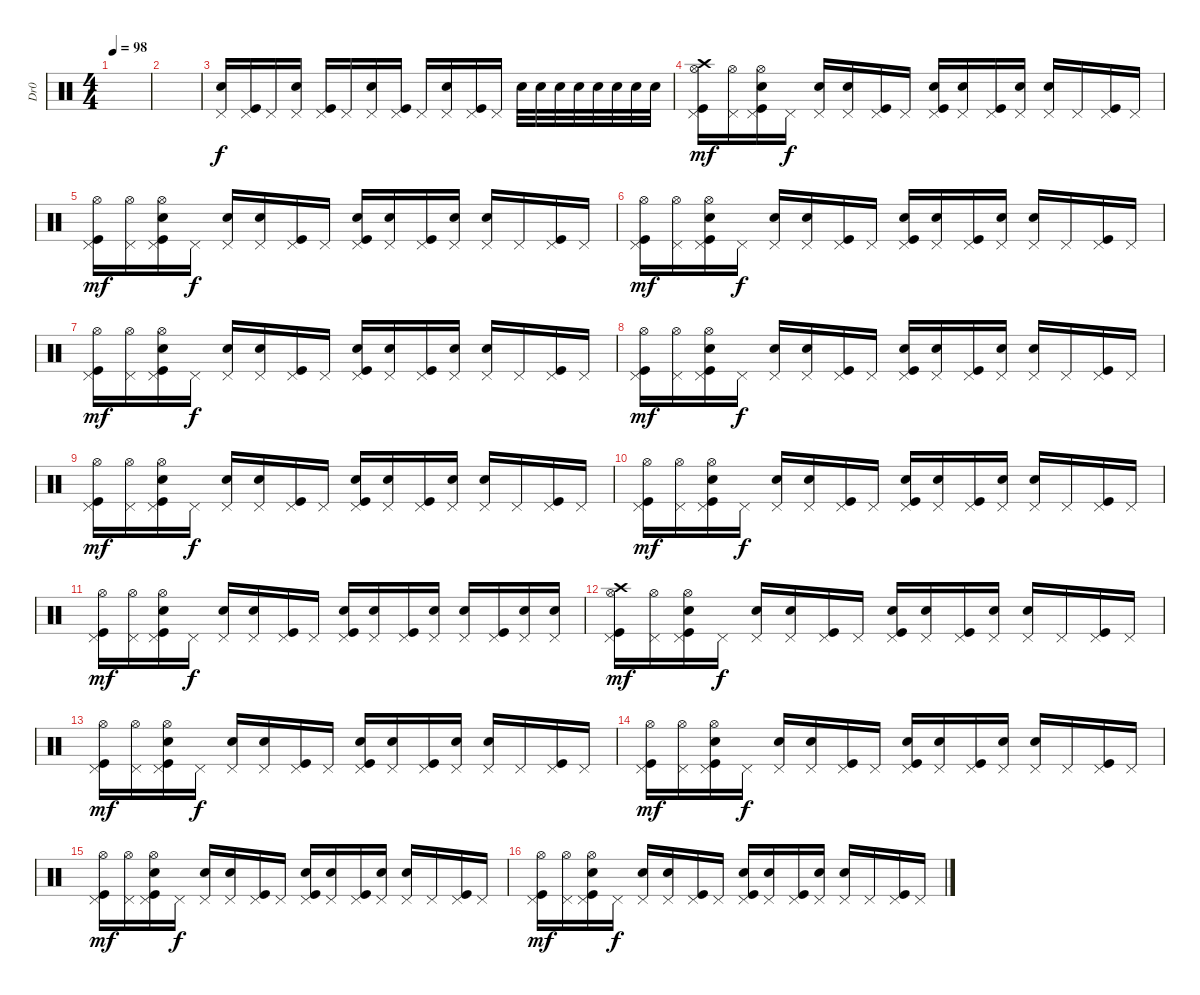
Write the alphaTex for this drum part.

\track ("Dr0" "Dr0") {instrument percussion}
\staff {score}
\articulation defaults
\ts (4 4)
\tempo 98
\clef neutral
\ks c
|
|
("Pedal Hi-Hat (hit)" "Snare (hit) 2").16 ("Kick (hit)" "Pedal Hi-Hat (hit)").16 "Pedal Hi-Hat (hit)".16 ("Pedal Hi-Hat (hit)" "Snare (hit) 2").16 ("Kick (hit)" "Pedal Hi-Hat (hit)").16 "Pedal Hi-Hat (hit)".16 ("Pedal Hi-Hat (hit)" "Snare (hit) 2").16 ("Kick (hit)" "Pedal Hi-Hat (hit)").16 "Pedal Hi-Hat (hit)".16 ("Pedal Hi-Hat (hit)" "Snare (hit) 2").16 ("Kick (hit)" "Pedal Hi-Hat (hit)").16 "Pedal Hi-Hat (hit)".16 "Snare (hit) 2".32 "Snare (hit) 2".32 "Snare (hit) 2".32 "Snare (hit) 2".32 "Snare (hit) 2".32 "Snare (hit) 2".32 "Snare (hit) 2".32 "Snare (hit) 2".32 |
("Kick (hit)" "Pedal Hi-Hat (hit)" "Crash high (hit)" "Hi-Hat (open)").16{dy mf} ("Pedal Hi-Hat (hit)" "Hi-Hat (open)").16 ("Kick (hit)" "Pedal Hi-Hat (hit)" "Hand Clap (hit)" "Hi-Hat (open)").16 "Pedal Hi-Hat (hit)".16{dy f} ("Pedal Hi-Hat (hit)" "Snare (hit) 2").16 ("Pedal Hi-Hat (hit)" "Hand Clap (hit)").16 ("Kick (hit)" "Pedal Hi-Hat (hit)").16 "Pedal Hi-Hat (hit)".16 ("Kick (hit)" "Pedal Hi-Hat (hit)" "Hand Clap (hit)").16 ("Pedal Hi-Hat (hit)" "Snare (hit) 2").16 ("Kick (hit)" "Pedal Hi-Hat (hit)").16 ("Pedal Hi-Hat (hit)" "Hand Clap (hit)").16 ("Pedal Hi-Hat (hit)" "Snare (hit) 2").16 "Pedal Hi-Hat (hit)".16 ("Kick (hit)" "Pedal Hi-Hat (hit)").16 "Pedal Hi-Hat (hit)".16 |
("Kick (hit)" "Pedal Hi-Hat (hit)" "Hi-Hat (open)").16{dy mf} ("Pedal Hi-Hat (hit)" "Hi-Hat (open)").16 ("Kick (hit)" "Pedal Hi-Hat (hit)" "Hand Clap (hit)" "Hi-Hat (open)").16 "Pedal Hi-Hat (hit)".16{dy f} ("Pedal Hi-Hat (hit)" "Snare (hit) 2").16 ("Pedal Hi-Hat (hit)" "Hand Clap (hit)").16 ("Kick (hit)" "Pedal Hi-Hat (hit)").16 "Pedal Hi-Hat (hit)".16 ("Kick (hit)" "Pedal Hi-Hat (hit)" "Hand Clap (hit)").16 ("Pedal Hi-Hat (hit)" "Snare (hit) 2").16 ("Kick (hit)" "Pedal Hi-Hat (hit)").16 ("Pedal Hi-Hat (hit)" "Hand Clap (hit)").16 ("Pedal Hi-Hat (hit)" "Snare (hit) 2").16 "Pedal Hi-Hat (hit)".16 ("Kick (hit)" "Pedal Hi-Hat (hit)").16 "Pedal Hi-Hat (hit)".16 |
("Kick (hit)" "Pedal Hi-Hat (hit)" "Hi-Hat (open)").16{dy mf} ("Pedal Hi-Hat (hit)" "Hi-Hat (open)").16 ("Kick (hit)" "Pedal Hi-Hat (hit)" "Hand Clap (hit)" "Hi-Hat (open)").16 "Pedal Hi-Hat (hit)".16{dy f} ("Pedal Hi-Hat (hit)" "Snare (hit) 2").16 ("Pedal Hi-Hat (hit)" "Hand Clap (hit)").16 ("Kick (hit)" "Pedal Hi-Hat (hit)").16 "Pedal Hi-Hat (hit)".16 ("Kick (hit)" "Pedal Hi-Hat (hit)" "Hand Clap (hit)").16 ("Pedal Hi-Hat (hit)" "Snare (hit) 2").16 ("Kick (hit)" "Pedal Hi-Hat (hit)").16 ("Pedal Hi-Hat (hit)" "Hand Clap (hit)").16 ("Pedal Hi-Hat (hit)" "Snare (hit) 2").16 "Pedal Hi-Hat (hit)".16 ("Kick (hit)" "Pedal Hi-Hat (hit)").16 "Pedal Hi-Hat (hit)".16 |
("Kick (hit)" "Pedal Hi-Hat (hit)" "Hi-Hat (open)").16{dy mf} ("Pedal Hi-Hat (hit)" "Hi-Hat (open)").16 ("Kick (hit)" "Pedal Hi-Hat (hit)" "Hand Clap (hit)" "Hi-Hat (open)").16 "Pedal Hi-Hat (hit)".16{dy f} ("Pedal Hi-Hat (hit)" "Snare (hit) 2").16 ("Pedal Hi-Hat (hit)" "Hand Clap (hit)").16 ("Kick (hit)" "Pedal Hi-Hat (hit)").16 "Pedal Hi-Hat (hit)".16 ("Kick (hit)" "Pedal Hi-Hat (hit)" "Hand Clap (hit)").16 ("Pedal Hi-Hat (hit)" "Snare (hit) 2").16 ("Kick (hit)" "Pedal Hi-Hat (hit)").16 ("Pedal Hi-Hat (hit)" "Hand Clap (hit)").16 ("Pedal Hi-Hat (hit)" "Snare (hit) 2").16 "Pedal Hi-Hat (hit)".16 ("Kick (hit)" "Pedal Hi-Hat (hit)").16 "Pedal Hi-Hat (hit)".16 |
("Kick (hit)" "Pedal Hi-Hat (hit)" "Hi-Hat (open)").16{dy mf} ("Pedal Hi-Hat (hit)" "Hi-Hat (open)").16 ("Kick (hit)" "Pedal Hi-Hat (hit)" "Hand Clap (hit)" "Hi-Hat (open)").16 "Pedal Hi-Hat (hit)".16{dy f} ("Pedal Hi-Hat (hit)" "Snare (hit) 2").16 ("Pedal Hi-Hat (hit)" "Hand Clap (hit)").16 ("Kick (hit)" "Pedal Hi-Hat (hit)").16 "Pedal Hi-Hat (hit)".16 ("Kick (hit)" "Pedal Hi-Hat (hit)" "Hand Clap (hit)").16 ("Pedal Hi-Hat (hit)" "Snare (hit) 2").16 ("Kick (hit)" "Pedal Hi-Hat (hit)").16 ("Pedal Hi-Hat (hit)" "Hand Clap (hit)").16 ("Pedal Hi-Hat (hit)" "Snare (hit) 2").16 "Pedal Hi-Hat (hit)".16 ("Kick (hit)" "Pedal Hi-Hat (hit)").16 "Pedal Hi-Hat (hit)".16 |
("Kick (hit)" "Pedal Hi-Hat (hit)" "Hi-Hat (open)").16{dy mf} ("Pedal Hi-Hat (hit)" "Hi-Hat (open)").16 ("Kick (hit)" "Pedal Hi-Hat (hit)" "Hand Clap (hit)" "Hi-Hat (open)").16 "Pedal Hi-Hat (hit)".16{dy f} ("Pedal Hi-Hat (hit)" "Snare (hit) 2").16 ("Pedal Hi-Hat (hit)" "Hand Clap (hit)").16 ("Kick (hit)" "Pedal Hi-Hat (hit)").16 "Pedal Hi-Hat (hit)".16 ("Kick (hit)" "Pedal Hi-Hat (hit)" "Hand Clap (hit)").16 ("Pedal Hi-Hat (hit)" "Snare (hit) 2").16 ("Kick (hit)" "Pedal Hi-Hat (hit)").16 ("Pedal Hi-Hat (hit)" "Hand Clap (hit)").16 ("Pedal Hi-Hat (hit)" "Snare (hit) 2").16 "Pedal Hi-Hat (hit)".16 ("Kick (hit)" "Pedal Hi-Hat (hit)").16 "Pedal Hi-Hat (hit)".16 |
("Kick (hit)" "Pedal Hi-Hat (hit)" "Hi-Hat (open)").16{dy mf} ("Pedal Hi-Hat (hit)" "Hi-Hat (open)").16 ("Kick (hit)" "Pedal Hi-Hat (hit)" "Hand Clap (hit)" "Hi-Hat (open)").16 "Pedal Hi-Hat (hit)".16{dy f} ("Pedal Hi-Hat (hit)" "Snare (hit) 2").16 ("Pedal Hi-Hat (hit)" "Hand Clap (hit)").16 ("Kick (hit)" "Pedal Hi-Hat (hit)").16 "Pedal Hi-Hat (hit)".16 ("Kick (hit)" "Pedal Hi-Hat (hit)" "Hand Clap (hit)").16 ("Pedal Hi-Hat (hit)" "Snare (hit) 2").16 ("Kick (hit)" "Pedal Hi-Hat (hit)").16 ("Pedal Hi-Hat (hit)" "Hand Clap (hit)").16 ("Pedal Hi-Hat (hit)" "Snare (hit) 2").16 "Pedal Hi-Hat (hit)".16 ("Kick (hit)" "Pedal Hi-Hat (hit)").16 "Pedal Hi-Hat (hit)".16 |
("Kick (hit)" "Pedal Hi-Hat (hit)" "Hi-Hat (open)").16{dy mf} ("Pedal Hi-Hat (hit)" "Hi-Hat (open)").16 ("Kick (hit)" "Pedal Hi-Hat (hit)" "Hand Clap (hit)" "Hi-Hat (open)").16 "Pedal Hi-Hat (hit)".16{dy f} ("Pedal Hi-Hat (hit)" "Snare (hit) 2").16 ("Pedal Hi-Hat (hit)" "Hand Clap (hit)").16 ("Kick (hit)" "Pedal Hi-Hat (hit)").16 "Pedal Hi-Hat (hit)".16 ("Kick (hit)" "Pedal Hi-Hat (hit)" "Hand Clap (hit)").16 ("Pedal Hi-Hat (hit)" "Snare (hit) 2").16 ("Kick (hit)" "Pedal Hi-Hat (hit)").16 ("Pedal Hi-Hat (hit)" "Hand Clap (hit)").16 ("Pedal Hi-Hat (hit)" "Snare (hit) 2").16 ("Kick (hit)" "Pedal Hi-Hat (hit)").16 ("Pedal Hi-Hat (hit)" "Snare (hit) 2").16 ("Pedal Hi-Hat (hit)" "Snare (hit) 2").16 |
("Kick (hit)" "Pedal Hi-Hat (hit)" "Crash high (hit)" "Hi-Hat (open)").16{dy mf} ("Pedal Hi-Hat (hit)" "Hi-Hat (open)").16 ("Kick (hit)" "Pedal Hi-Hat (hit)" "Hand Clap (hit)" "Hi-Hat (open)").16 "Pedal Hi-Hat (hit)".16{dy f} ("Pedal Hi-Hat (hit)" "Snare (hit) 2").16 ("Pedal Hi-Hat (hit)" "Hand Clap (hit)").16 ("Kick (hit)" "Pedal Hi-Hat (hit)").16 "Pedal Hi-Hat (hit)".16 ("Kick (hit)" "Pedal Hi-Hat (hit)" "Hand Clap (hit)").16 ("Pedal Hi-Hat (hit)" "Snare (hit) 2").16 ("Kick (hit)" "Pedal Hi-Hat (hit)").16 ("Pedal Hi-Hat (hit)" "Hand Clap (hit)").16 ("Pedal Hi-Hat (hit)" "Snare (hit) 2").16 "Pedal Hi-Hat (hit)".16 ("Kick (hit)" "Pedal Hi-Hat (hit)").16 "Pedal Hi-Hat (hit)".16 |
("Kick (hit)" "Pedal Hi-Hat (hit)" "Hi-Hat (open)").16{dy mf} ("Pedal Hi-Hat (hit)" "Hi-Hat (open)").16 ("Kick (hit)" "Pedal Hi-Hat (hit)" "Hand Clap (hit)" "Hi-Hat (open)").16 "Pedal Hi-Hat (hit)".16{dy f} ("Pedal Hi-Hat (hit)" "Snare (hit) 2").16 ("Pedal Hi-Hat (hit)" "Hand Clap (hit)").16 ("Kick (hit)" "Pedal Hi-Hat (hit)").16 "Pedal Hi-Hat (hit)".16 ("Kick (hit)" "Pedal Hi-Hat (hit)" "Hand Clap (hit)").16 ("Pedal Hi-Hat (hit)" "Snare (hit) 2").16 ("Kick (hit)" "Pedal Hi-Hat (hit)").16 ("Pedal Hi-Hat (hit)" "Hand Clap (hit)").16 ("Pedal Hi-Hat (hit)" "Snare (hit) 2").16 "Pedal Hi-Hat (hit)".16 ("Kick (hit)" "Pedal Hi-Hat (hit)").16 "Pedal Hi-Hat (hit)".16 |
("Kick (hit)" "Pedal Hi-Hat (hit)" "Hi-Hat (open)").16{dy mf} ("Pedal Hi-Hat (hit)" "Hi-Hat (open)").16 ("Kick (hit)" "Pedal Hi-Hat (hit)" "Hand Clap (hit)" "Hi-Hat (open)").16 "Pedal Hi-Hat (hit)".16{dy f} ("Pedal Hi-Hat (hit)" "Snare (hit) 2").16 ("Pedal Hi-Hat (hit)" "Hand Clap (hit)").16 ("Kick (hit)" "Pedal Hi-Hat (hit)").16 "Pedal Hi-Hat (hit)".16 ("Kick (hit)" "Pedal Hi-Hat (hit)" "Hand Clap (hit)").16 ("Pedal Hi-Hat (hit)" "Snare (hit) 2").16 ("Kick (hit)" "Pedal Hi-Hat (hit)").16 ("Pedal Hi-Hat (hit)" "Hand Clap (hit)").16 ("Pedal Hi-Hat (hit)" "Snare (hit) 2").16 "Pedal Hi-Hat (hit)".16 ("Kick (hit)" "Pedal Hi-Hat (hit)").16 "Pedal Hi-Hat (hit)".16 |
("Kick (hit)" "Pedal Hi-Hat (hit)" "Hi-Hat (open)").16{dy mf} ("Pedal Hi-Hat (hit)" "Hi-Hat (open)").16 ("Kick (hit)" "Pedal Hi-Hat (hit)" "Hand Clap (hit)" "Hi-Hat (open)").16 "Pedal Hi-Hat (hit)".16{dy f} ("Pedal Hi-Hat (hit)" "Snare (hit) 2").16 ("Pedal Hi-Hat (hit)" "Hand Clap (hit)").16 ("Kick (hit)" "Pedal Hi-Hat (hit)").16 "Pedal Hi-Hat (hit)".16 ("Kick (hit)" "Pedal Hi-Hat (hit)" "Hand Clap (hit)").16 ("Pedal Hi-Hat (hit)" "Snare (hit) 2").16 ("Kick (hit)" "Pedal Hi-Hat (hit)").16 ("Pedal Hi-Hat (hit)" "Hand Clap (hit)").16 ("Pedal Hi-Hat (hit)" "Snare (hit) 2").16 "Pedal Hi-Hat (hit)".16 ("Kick (hit)" "Pedal Hi-Hat (hit)").16 "Pedal Hi-Hat (hit)".16 |
("Kick (hit)" "Pedal Hi-Hat (hit)" "Hi-Hat (open)").16{dy mf} ("Pedal Hi-Hat (hit)" "Hi-Hat (open)").16 ("Kick (hit)" "Pedal Hi-Hat (hit)" "Hand Clap (hit)" "Hi-Hat (open)").16 "Pedal Hi-Hat (hit)".16{dy f} ("Pedal Hi-Hat (hit)" "Snare (hit) 2").16 ("Pedal Hi-Hat (hit)" "Hand Clap (hit)").16 ("Kick (hit)" "Pedal Hi-Hat (hit)").16 "Pedal Hi-Hat (hit)".16 ("Kick (hit)" "Pedal Hi-Hat (hit)" "Hand Clap (hit)").16 ("Pedal Hi-Hat (hit)" "Snare (hit) 2").16 ("Kick (hit)" "Pedal Hi-Hat (hit)").16 ("Pedal Hi-Hat (hit)" "Hand Clap (hit)").16 ("Pedal Hi-Hat (hit)" "Snare (hit) 2").16 "Pedal Hi-Hat (hit)".16 ("Kick (hit)" "Pedal Hi-Hat (hit)").16 "Pedal Hi-Hat (hit)".16
